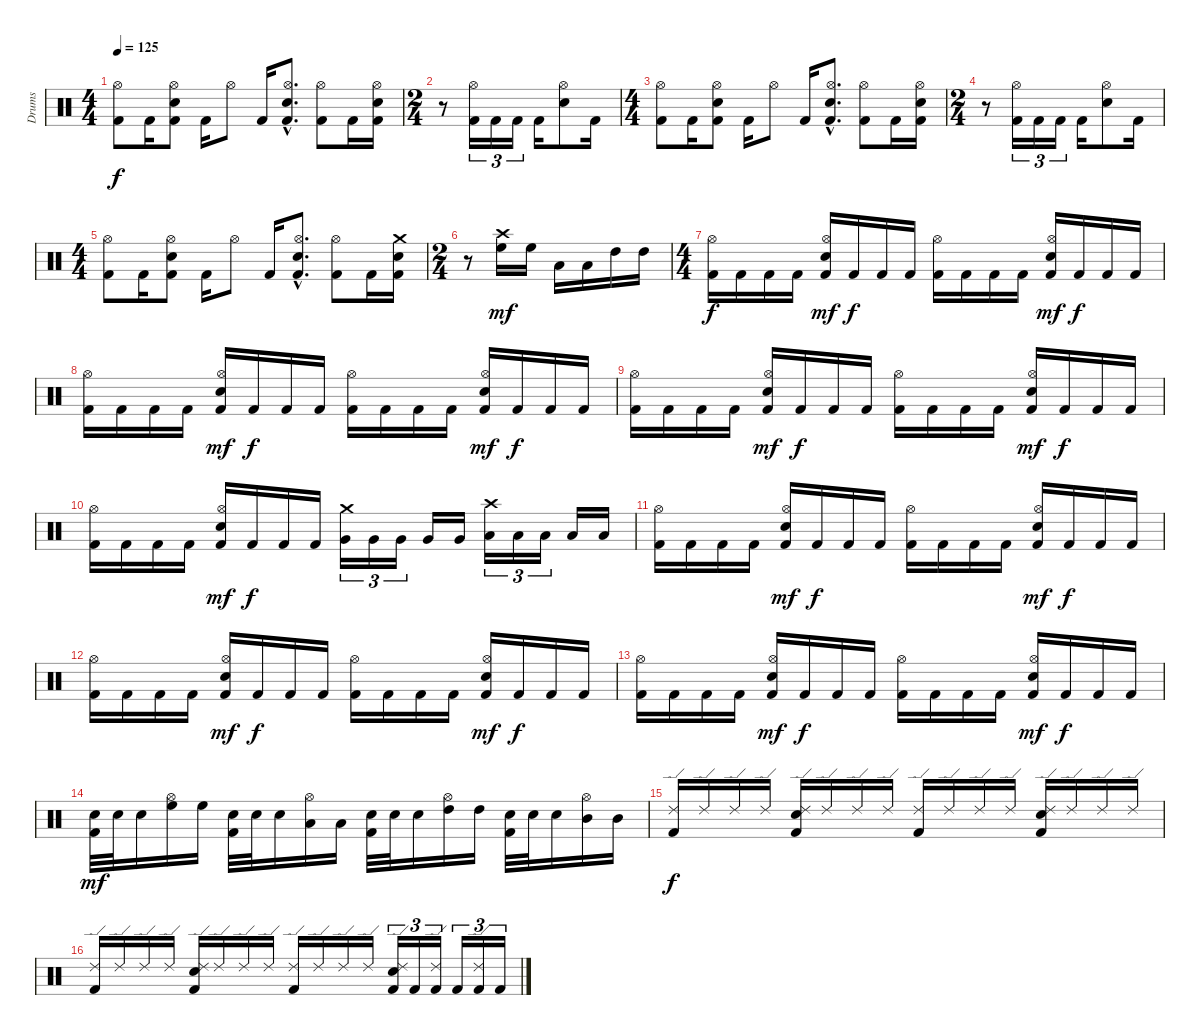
\track ("Drums" "Drums") {instrument percussion}
\staff {score}
\articulation defaults
\ts (4 4)
\tempo 125
\clef neutral
\ks c
("Kick (hit) 2" "Hi-Hat (open)").8{dy f} "Kick (hit) 2".16 ("Kick (hit) 2" "Electric Snare (hit)" "Hi-Hat (open)").8 "Kick (hit) 2".16 "Hi-Hat (open)".8 "Kick (hit) 2".16 ("Kick (hit) 2"{hac} "Electric Snare (hit)"{hac} "Hi-Hat (open)"{hac}).8{d} ("Kick (hit) 2" "Hi-Hat (open)").8 "Kick (hit) 2".16 ("Kick (hit) 2" "Electric Snare (hit)" "Hi-Hat (open)").16 |
\ts (2 4)
r.8 ("Kick (hit) 2" "Hi-Hat (open)").16{tu (3 2)} "Kick (hit) 2".16{tu (3 2)} "Kick (hit) 2".16{tu (3 2)} "Kick (hit) 2".16 ("Electric Snare (hit)" "Hi-Hat (open)").8 "Kick (hit) 2".16 |
\ts (4 4)
("Kick (hit) 2" "Hi-Hat (open)").8 "Kick (hit) 2".16 ("Kick (hit) 2" "Electric Snare (hit)" "Hi-Hat (open)").8 "Kick (hit) 2".16 "Hi-Hat (open)".8 "Kick (hit) 2".16 ("Kick (hit) 2"{hac} "Electric Snare (hit)"{hac} "Hi-Hat (open)"{hac}).8{d} ("Kick (hit) 2" "Hi-Hat (open)").8 "Kick (hit) 2".16 ("Kick (hit) 2" "Electric Snare (hit)" "Hi-Hat (open)").16 |
\ts (2 4)
r.8 ("Kick (hit) 2" "Hi-Hat (open)").16{tu (3 2)} "Kick (hit) 2".16{tu (3 2)} "Kick (hit) 2".16{tu (3 2)} "Kick (hit) 2".16 ("Electric Snare (hit)" "Hi-Hat (open)").8 "Kick (hit) 2".16 |
\ts (4 4)
("Kick (hit) 2" "Hi-Hat (open)").8 "Kick (hit) 2".16 ("Kick (hit) 2" "Electric Snare (hit)" "Hi-Hat (open)").8 "Kick (hit) 2".16 "Hi-Hat (open)".8 "Kick (hit) 2".16 ("Kick (hit) 2"{hac} "Electric Snare (hit)"{hac} "Hi-Hat (open)"{hac}).8{d} ("Kick (hit) 2" "Hi-Hat (open)").8 "Kick (hit) 2".16 ("Kick (hit) 2" "Electric Snare (hit)" "Crash medium (hit)").16 |
\ts (2 4)
r.8 ("High Floor Tom (hit)" "Crash high (hit)").16{dy mf} "High Floor Tom (hit)".16 "Low Tom (hit)".16 "Low Tom (hit)".16 "High Tom (hit)".16 "High Tom (hit)".16 |
\ts (4 4)
("Kick (hit) 2" "Hi-Hat (open)").16{dy f} "Kick (hit) 2".16 "Kick (hit) 2".16 "Kick (hit) 2".16 ("Kick (hit) 2" "Electric Snare (hit)" "Hi-Hat (open)").16{dy mf} "Kick (hit) 2".16{dy f} "Kick (hit) 2".16 "Kick (hit) 2".16 ("Kick (hit) 2" "Hi-Hat (open)").16 "Kick (hit) 2".16 "Kick (hit) 2".16 "Kick (hit) 2".16 ("Kick (hit) 2" "Electric Snare (hit)" "Hi-Hat (open)").16{dy mf} "Kick (hit) 2".16{dy f} "Kick (hit) 2".16 "Kick (hit) 2".16 |
("Kick (hit) 2" "Hi-Hat (open)").16 "Kick (hit) 2".16 "Kick (hit) 2".16 "Kick (hit) 2".16 ("Kick (hit) 2" "Electric Snare (hit)" "Hi-Hat (open)").16{dy mf} "Kick (hit) 2".16{dy f} "Kick (hit) 2".16 "Kick (hit) 2".16 ("Kick (hit) 2" "Hi-Hat (open)").16 "Kick (hit) 2".16 "Kick (hit) 2".16 "Kick (hit) 2".16 ("Kick (hit) 2" "Electric Snare (hit)" "Hi-Hat (open)").16{dy mf} "Kick (hit) 2".16{dy f} "Kick (hit) 2".16 "Kick (hit) 2".16 |
("Kick (hit) 2" "Hi-Hat (open)").16 "Kick (hit) 2".16 "Kick (hit) 2".16 "Kick (hit) 2".16 ("Kick (hit) 2" "Electric Snare (hit)" "Hi-Hat (open)").16{dy mf} "Kick (hit) 2".16{dy f} "Kick (hit) 2".16 "Kick (hit) 2".16 ("Kick (hit) 2" "Hi-Hat (open)").16 "Kick (hit) 2".16 "Kick (hit) 2".16 "Kick (hit) 2".16 ("Kick (hit) 2" "Electric Snare (hit)" "Hi-Hat (open)").16{dy mf} "Kick (hit) 2".16{dy f} "Kick (hit) 2".16 "Kick (hit) 2".16 |
("Kick (hit) 2" "Hi-Hat (open)").16 "Kick (hit) 2".16 "Kick (hit) 2".16 "Kick (hit) 2".16 ("Kick (hit) 2" "Electric Snare (hit)" "Hi-Hat (open)").16{dy mf} "Kick (hit) 2".16{dy f} "Kick (hit) 2".16 "Kick (hit) 2".16 ("Very Low Tom (hit)" "Crash medium (hit)").16{tu (3 2)} "Very Low Tom (hit)".16{tu (3 2)} "Very Low Tom (hit)".16{tu (3 2)} "Very Low Tom (hit)".16 "Very Low Tom (hit)".16 ("Low Tom (hit)" "Crash high (hit)").16{tu (3 2)} "Low Tom (hit)".16{tu (3 2)} "Low Tom (hit)".16{tu (3 2)} "Low Tom (hit)".16 "Low Tom (hit)".16 |
("Kick (hit) 2" "Hi-Hat (open)").16 "Kick (hit) 2".16 "Kick (hit) 2".16 "Kick (hit) 2".16 ("Kick (hit) 2" "Electric Snare (hit)" "Hi-Hat (open)").16{dy mf} "Kick (hit) 2".16{dy f} "Kick (hit) 2".16 "Kick (hit) 2".16 ("Kick (hit) 2" "Hi-Hat (open)").16 "Kick (hit) 2".16 "Kick (hit) 2".16 "Kick (hit) 2".16 ("Kick (hit) 2" "Electric Snare (hit)" "Hi-Hat (open)").16{dy mf} "Kick (hit) 2".16{dy f} "Kick (hit) 2".16 "Kick (hit) 2".16 |
("Kick (hit) 2" "Hi-Hat (open)").16 "Kick (hit) 2".16 "Kick (hit) 2".16 "Kick (hit) 2".16 ("Kick (hit) 2" "Electric Snare (hit)" "Hi-Hat (open)").16{dy mf} "Kick (hit) 2".16{dy f} "Kick (hit) 2".16 "Kick (hit) 2".16 ("Kick (hit) 2" "Hi-Hat (open)").16 "Kick (hit) 2".16 "Kick (hit) 2".16 "Kick (hit) 2".16 ("Kick (hit) 2" "Electric Snare (hit)" "Hi-Hat (open)").16{dy mf} "Kick (hit) 2".16{dy f} "Kick (hit) 2".16 "Kick (hit) 2".16 |
("Kick (hit) 2" "Hi-Hat (open)").16 "Kick (hit) 2".16 "Kick (hit) 2".16 "Kick (hit) 2".16 ("Kick (hit) 2" "Electric Snare (hit)" "Hi-Hat (open)").16{dy mf} "Kick (hit) 2".16{dy f} "Kick (hit) 2".16 "Kick (hit) 2".16 ("Kick (hit) 2" "Hi-Hat (open)").16 "Kick (hit) 2".16 "Kick (hit) 2".16 "Kick (hit) 2".16 ("Kick (hit) 2" "Electric Snare (hit)" "Hi-Hat (open)").16{dy mf} "Kick (hit) 2".16{dy f} "Kick (hit) 2".16 "Kick (hit) 2".16 |
("Kick (hit) 2" "Electric Snare (hit)").32{dy mf} "Electric Snare (hit)".32 "Electric Snare (hit)".16 ("High Floor Tom (hit)" "Hi-Hat (open)").16 "High Floor Tom (hit)".16 ("Kick (hit) 2" "Electric Snare (hit)").32 "Electric Snare (hit)".32 "Electric Snare (hit)".16 ("Low Tom (hit)" "Hi-Hat (open)").16 "Low Tom (hit)".16 ("Kick (hit) 2" "Electric Snare (hit)").32 "Electric Snare (hit)".32 "Electric Snare (hit)".16 ("High Tom (hit)" "Hi-Hat (open)").16 "High Tom (hit)".16 ("Kick (hit) 2" "Electric Snare (hit)").32 "Electric Snare (hit)".32 "Electric Snare (hit)".16 ("Mid Tom (hit)" "Hi-Hat (open)").16 "Mid Tom (hit)".16 |
("Kick (hit) 2" "Ride (edge) 2").16{dy f} "Ride (edge) 2".16 "Ride (edge) 2".16 "Ride (edge) 2".16 ("Kick (hit) 2" "Electric Snare (hit)" "Ride (edge) 2").16 "Ride (edge) 2".16 "Ride (edge) 2".16 "Ride (edge) 2".16 ("Kick (hit) 2" "Ride (edge) 2").16 "Ride (edge) 2".16 "Ride (edge) 2".16 "Ride (edge) 2".16 ("Kick (hit) 2" "Electric Snare (hit)" "Ride (edge) 2").16 "Ride (edge) 2".16 "Ride (edge) 2".16 "Ride (edge) 2".16 |
("Kick (hit) 2" "Ride (edge) 2").16 "Ride (edge) 2".16 "Ride (edge) 2".16 "Ride (edge) 2".16 ("Kick (hit) 2" "Electric Snare (hit)" "Ride (edge) 2").16 "Ride (edge) 2".16 "Ride (edge) 2".16 "Ride (edge) 2".16 ("Kick (hit) 2" "Ride (edge) 2").16 "Ride (edge) 2".16 "Ride (edge) 2".16 "Ride (edge) 2".16 ("Kick (hit) 2" "Electric Snare (hit)" "Ride (edge) 2").16{tu (3 2)} "Kick (hit) 2".16{tu (3 2)} ("Kick (hit) 2" "Ride (edge) 2").16{tu (3 2)} "Kick (hit) 2".16{tu (3 2)} ("Kick (hit) 2" "Ride (edge) 2").16{tu (3 2)} "Kick (hit) 2".16{tu (3 2)}
